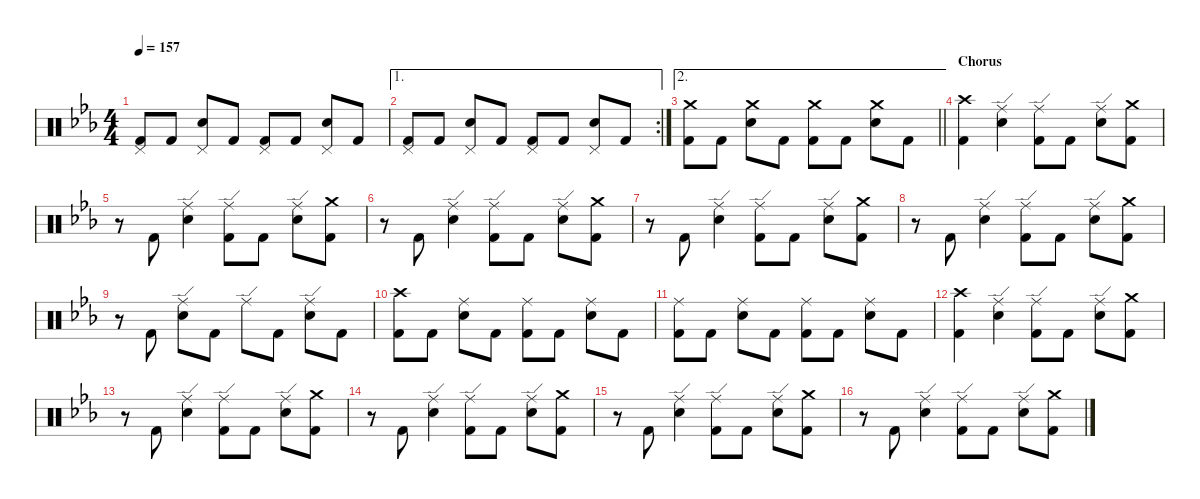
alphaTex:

\defaultSystemsLayout 4
\hideDynamics
\bracketExtendMode nobrackets
\singleTrackTrackNamePolicy hidden
\multiTrackTrackNamePolicy hidden
\firstSystemTrackNameMode fullname
\otherSystemsTrackNameOrientation horizontal
\track ("Drums" "drm.") {instrument percussion}
\staff {score}
\articulation defaults
\ts (4 4)
\tempo 157
\clef neutral
\ks cminor
("Pedal Hi-Hat (hit)"{acc forcenatural} "Kick (hit) 2"{acc forcenatural}).8{dy f beam Up} "Kick (hit) 2"{acc forcenatural}.8{beam Up} ("Pedal Hi-Hat (hit)"{acc forcenatural} "Snare (hit) 2"{acc forcenatural}).8{beam Up} "Kick (hit) 2"{acc forcenatural}.8{beam Up} ("Pedal Hi-Hat (hit)"{acc forcenatural} "Kick (hit) 2"{acc forcenatural}).8{beam Up} "Kick (hit) 2"{acc forcenatural}.8{beam Up} ("Pedal Hi-Hat (hit)"{acc forcenatural} "Snare (hit) 2"{acc forcenatural}).8{beam Up} "Kick (hit) 2"{acc forcenatural}.8{beam Up} |
\ae 1
\rc 2
("Pedal Hi-Hat (hit)"{acc forcenatural} "Kick (hit) 2"{acc forcenatural}).8{beam Up} "Kick (hit) 2"{acc forcenatural}.8{beam Up} ("Pedal Hi-Hat (hit)"{acc forcenatural} "Snare (hit) 2"{acc forcenatural}).8{beam Up} "Kick (hit) 2"{acc forcenatural}.8{beam Up} ("Pedal Hi-Hat (hit)"{acc forcenatural} "Kick (hit) 2"{acc forcenatural}).8{beam Up} "Kick (hit) 2"{acc forcenatural}.8{beam Up} ("Pedal Hi-Hat (hit)"{acc forcenatural} "Snare (hit) 2"{acc forcenatural}).8{beam Up} "Kick (hit) 2"{acc forcenatural}.8{beam Up} |
\ae 2
\barLineRight lightlight
("Crash medium (hit)"{acc forcenatural} "Kick (hit) 2"{acc forcenatural}).8{dy mp beam Down} "Kick (hit) 2"{acc forcenatural}.8{dy f beam Down} ("Crash medium (hit)"{acc forcenatural} "Snare (hit) 2"{acc forcenatural}).8{dy mf beam Down} "Kick (hit) 2"{acc forcenatural}.8{dy f beam Down} ("Crash medium (hit)"{acc forcenatural} "Kick (hit) 2"{acc forcenatural}).8{dy mp beam Down} "Kick (hit) 2"{acc forcenatural}.8{dy f beam Down} ("Crash medium (hit)"{acc forcenatural} "Snare (hit) 2"{acc forcenatural}).8{beam Down} "Kick (hit) 2"{acc forcenatural}.8{beam Down} |
\section ("" "Chorus")
("Crash high (hit)"{acc forcenatural} "Kick (hit) 2"{acc forcenatural}).4{beam Down} ("Ride (edge)"{acc forcenatural} "Snare (hit) 2"{acc forcenatural}).4{beam Down} ("Ride (edge)"{acc forcenatural} "Kick (hit) 2"{acc forcenatural}).8{beam Down} "Kick (hit) 2"{acc forcenatural}.8{beam Down} ("Ride (edge)"{acc forcenatural} "Snare (hit) 2"{acc forcenatural}).8{beam Down} ("Crash medium (hit)"{acc forcenatural} "Kick (hit) 2"{acc forcenatural}).8{beam Down} |
r.8{beam Down} "Kick (hit) 2"{acc forcenatural}.8{beam Up} ("Ride (edge)"{acc forcenatural} "Snare (hit) 2"{acc forcenatural}).4{beam Down} ("Ride (edge)"{acc forcenatural} "Kick (hit) 2"{acc forcenatural}).8{beam Down} "Kick (hit) 2"{acc forcenatural}.8{beam Down} ("Ride (edge)"{acc forcenatural} "Snare (hit) 2"{acc forcenatural}).8{beam Down} ("Crash medium (hit)"{acc forcenatural} "Kick (hit) 2"{acc forcenatural}).8{beam Down} |
r.8{beam Down} "Kick (hit) 2"{acc forcenatural}.8{beam Up} ("Ride (edge)"{acc forcenatural} "Snare (hit) 2"{acc forcenatural}).4{beam Down} ("Ride (edge)"{acc forcenatural} "Kick (hit) 2"{acc forcenatural}).8{beam Down} "Kick (hit) 2"{acc forcenatural}.8{beam Down} ("Ride (edge)"{acc forcenatural} "Snare (hit) 2"{acc forcenatural}).8{beam Down} ("Crash medium (hit)"{acc forcenatural} "Kick (hit) 2"{acc forcenatural}).8{beam Down} |
r.8{beam Down} "Kick (hit) 2"{acc forcenatural}.8{beam Up} ("Ride (edge)"{acc forcenatural} "Snare (hit) 2"{acc forcenatural}).4{beam Down} ("Ride (edge)"{acc forcenatural} "Kick (hit) 2"{acc forcenatural}).8{beam Down} "Kick (hit) 2"{acc forcenatural}.8{beam Down} ("Ride (edge)"{acc forcenatural} "Snare (hit) 2"{acc forcenatural}).8{beam Down} ("Crash medium (hit)"{acc forcenatural} "Kick (hit) 2"{acc forcenatural}).8{beam Down} |
r.8{beam Down} "Kick (hit) 2"{acc forcenatural}.8{beam Up} ("Ride (edge)"{acc forcenatural} "Snare (hit) 2"{acc forcenatural}).4{beam Down} ("Ride (edge)"{acc forcenatural} "Kick (hit) 2"{acc forcenatural}).8{beam Down} "Kick (hit) 2"{acc forcenatural}.8{beam Down} ("Ride (edge)"{acc forcenatural} "Snare (hit) 2"{acc forcenatural}).8{beam Down} ("Crash medium (hit)"{acc forcenatural} "Kick (hit) 2"{acc forcenatural}).8{beam Down} |
r.8{beam Down} "Kick (hit) 2"{acc forcenatural}.8{beam Up} ("Ride (edge)"{acc forcenatural} "Snare (hit) 2"{acc forcenatural}).8{beam Down} "Kick (hit) 2"{acc forcenatural}.8{beam Down} "Ride (edge)"{acc forcenatural}.8{beam Down} "Kick (hit) 2"{acc forcenatural}.8{beam Down} ("Ride (edge)"{acc forcenatural} "Snare (hit) 2"{acc forcenatural}).8{beam Down} "Kick (hit) 2"{acc forcenatural}.8{beam Down} |
("Crash high (hit)"{acc forcenatural} "Kick (hit) 2"{acc forcenatural}).8{beam Down} "Kick (hit) 2"{acc forcenatural}.8{beam Down} ("Ride (middle)"{acc forcenatural} "Snare (hit) 2"{acc forcenatural}).8{beam Down} "Kick (hit) 2"{acc forcenatural}.8{beam Down} ("Ride (middle)"{acc forcenatural} "Kick (hit) 2"{acc forcenatural}).8{beam Down} "Kick (hit) 2"{acc forcenatural}.8{beam Down} ("Ride (middle)"{acc forcenatural} "Snare (hit) 2"{acc forcenatural}).8{beam Down} "Kick (hit) 2"{acc forcenatural}.8{beam Down} |
("Ride (middle)"{acc forcenatural} "Kick (hit) 2"{acc forcenatural}).8{beam Down} "Kick (hit) 2"{acc forcenatural}.8{beam Down} ("Ride (middle)"{acc forcenatural} "Snare (hit) 2"{acc forcenatural}).8{beam Down} "Kick (hit) 2"{acc forcenatural}.8{beam Down} ("Ride (middle)"{acc forcenatural} "Kick (hit) 2"{acc forcenatural}).8{beam Down} "Kick (hit) 2"{acc forcenatural}.8{beam Down} ("Ride (middle)"{acc forcenatural} "Snare (hit) 2"{acc forcenatural}).8{beam Down} "Kick (hit) 2"{acc forcenatural}.8{beam Down} |
("Crash high (hit)"{acc forcenatural} "Kick (hit) 2"{acc forcenatural}).4{beam Down} ("Ride (edge)"{acc forcenatural} "Snare (hit) 2"{acc forcenatural}).4{beam Down} ("Ride (edge)"{acc forcenatural} "Kick (hit) 2"{acc forcenatural}).8{beam Down} "Kick (hit) 2"{acc forcenatural}.8{beam Down} ("Ride (edge)"{acc forcenatural} "Snare (hit) 2"{acc forcenatural}).8{beam Down} ("Crash medium (hit)"{acc forcenatural} "Kick (hit) 2"{acc forcenatural}).8{beam Down} |
r.8{beam Down} "Kick (hit) 2"{acc forcenatural}.8{beam Up} ("Ride (edge)"{acc forcenatural} "Snare (hit) 2"{acc forcenatural}).4{beam Down} ("Ride (edge)"{acc forcenatural} "Kick (hit) 2"{acc forcenatural}).8{beam Down} "Kick (hit) 2"{acc forcenatural}.8{beam Down} ("Ride (edge)"{acc forcenatural} "Snare (hit) 2"{acc forcenatural}).8{beam Down} ("Crash medium (hit)"{acc forcenatural} "Kick (hit) 2"{acc forcenatural}).8{beam Down} |
r.8{beam Down} "Kick (hit) 2"{acc forcenatural}.8{beam Up} ("Ride (edge)"{acc forcenatural} "Snare (hit) 2"{acc forcenatural}).4{beam Down} ("Ride (edge)"{acc forcenatural} "Kick (hit) 2"{acc forcenatural}).8{beam Down} "Kick (hit) 2"{acc forcenatural}.8{beam Down} ("Ride (edge)"{acc forcenatural} "Snare (hit) 2"{acc forcenatural}).8{beam Down} ("Crash medium (hit)"{acc forcenatural} "Kick (hit) 2"{acc forcenatural}).8{beam Down} |
r.8{beam Down} "Kick (hit) 2"{acc forcenatural}.8{beam Up} ("Ride (edge)"{acc forcenatural} "Snare (hit) 2"{acc forcenatural}).4{beam Down} ("Ride (edge)"{acc forcenatural} "Kick (hit) 2"{acc forcenatural}).8{beam Down} "Kick (hit) 2"{acc forcenatural}.8{beam Down} ("Ride (edge)"{acc forcenatural} "Snare (hit) 2"{acc forcenatural}).8{beam Down} ("Crash medium (hit)"{acc forcenatural} "Kick (hit) 2"{acc forcenatural}).8{beam Down} |
r.8{beam Down} "Kick (hit) 2"{acc forcenatural}.8{beam Up} ("Ride (edge)"{acc forcenatural} "Snare (hit) 2"{acc forcenatural}).4{beam Down} ("Ride (edge)"{acc forcenatural} "Kick (hit) 2"{acc forcenatural}).8{beam Down} "Kick (hit) 2"{acc forcenatural}.8{beam Down} ("Ride (edge)"{acc forcenatural} "Snare (hit) 2"{acc forcenatural}).8{beam Down} ("Crash medium (hit)"{acc forcenatural} "Kick (hit) 2"{acc forcenatural}).8{beam Down}
